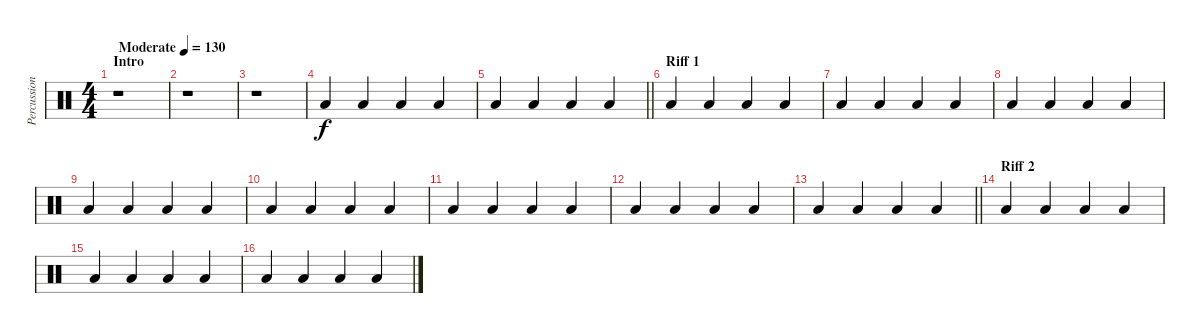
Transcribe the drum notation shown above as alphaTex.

\track ("Percussion 1" "Percussion") {instrument percussion}
\staff {score}
\articulation defaults
\ts (4 4)
\section ("" "Intro")
\tempo (130 "Moderate")
\clef neutral
\ks c
r.1{dy f} |
r.1 |
r.1 |
"Low Floor Tom (hit)".4 "Low Floor Tom (hit)".4 "Low Floor Tom (hit)".4 "Low Floor Tom (hit)".4 |
\barLineRight lightlight "Low Floor Tom (hit)".4 "Low Floor Tom (hit)".4 "Low Floor Tom (hit)".4 "Low Floor Tom (hit)".4
|
\section ("" "Riff 1")
"Low Floor Tom (hit)".4 "Low Floor Tom (hit)".4 "Low Floor Tom (hit)".4 "Low Floor Tom (hit)".4 |
"Low Floor Tom (hit)".4 "Low Floor Tom (hit)".4 "Low Floor Tom (hit)".4 "Low Floor Tom (hit)".4 |
"Low Floor Tom (hit)".4 "Low Floor Tom (hit)".4 "Low Floor Tom (hit)".4 "Low Floor Tom (hit)".4 |
"Low Floor Tom (hit)".4 "Low Floor Tom (hit)".4 "Low Floor Tom (hit)".4 "Low Floor Tom (hit)".4 |
"Low Floor Tom (hit)".4 "Low Floor Tom (hit)".4 "Low Floor Tom (hit)".4 "Low Floor Tom (hit)".4 |
"Low Floor Tom (hit)".4 "Low Floor Tom (hit)".4 "Low Floor Tom (hit)".4 "Low Floor Tom (hit)".4 |
"Low Floor Tom (hit)".4 "Low Floor Tom (hit)".4 "Low Floor Tom (hit)".4 "Low Floor Tom (hit)".4 |
\barLineRight lightlight "Low Floor Tom (hit)".4 "Low Floor Tom (hit)".4 "Low Floor Tom (hit)".4 "Low Floor Tom (hit)".4
|
\section ("" "Riff 2")
"Low Floor Tom (hit)".4 "Low Floor Tom (hit)".4 "Low Floor Tom (hit)".4 "Low Floor Tom (hit)".4 |
"Low Floor Tom (hit)".4 "Low Floor Tom (hit)".4 "Low Floor Tom (hit)".4 "Low Floor Tom (hit)".4 |
"Low Floor Tom (hit)".4 "Low Floor Tom (hit)".4 "Low Floor Tom (hit)".4 "Low Floor Tom (hit)".4
